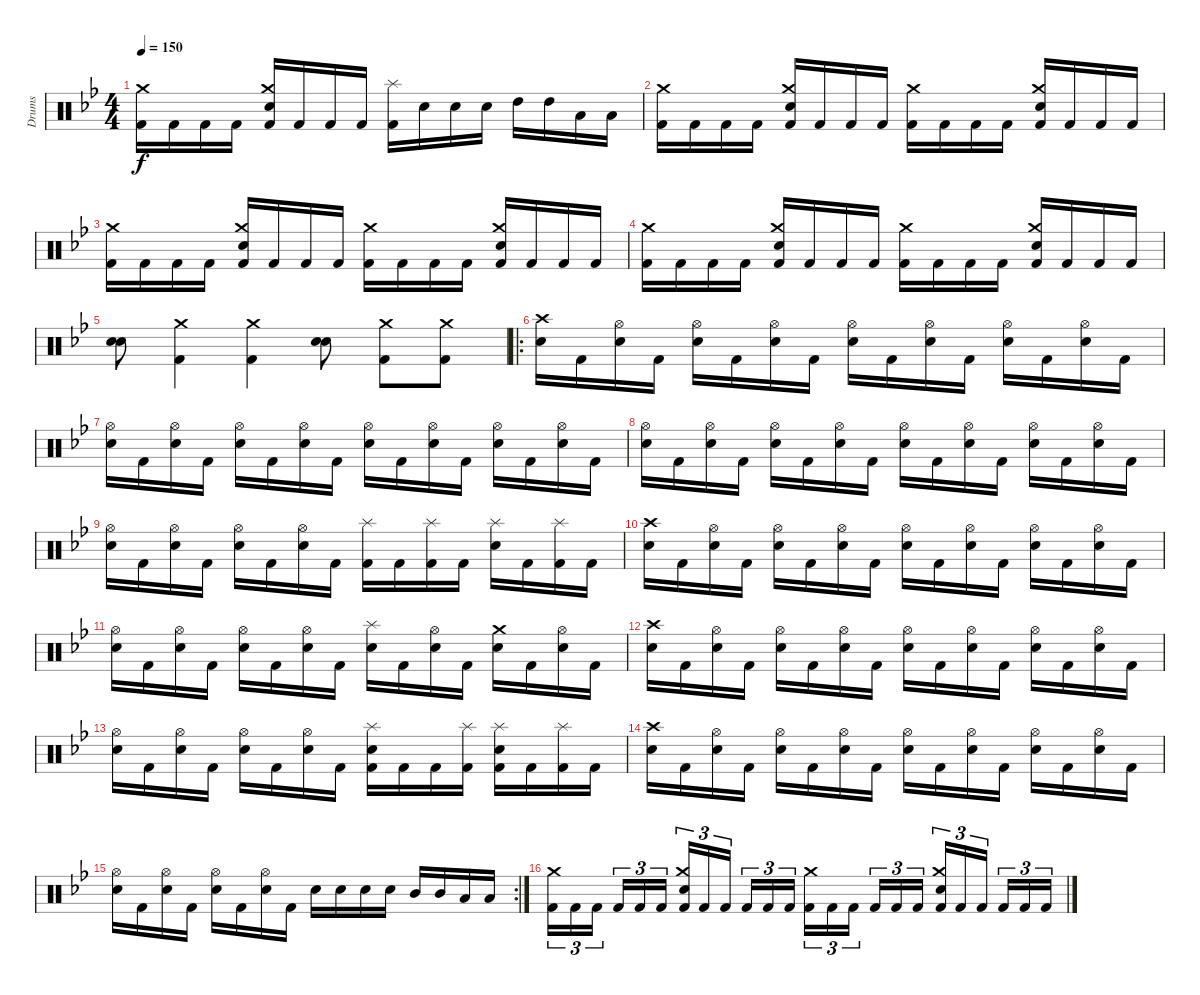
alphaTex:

\track ("Drums" "Drums") {instrument percussion}
\staff {score}
\articulation defaults
\ts (4 4)
\tempo 150
\clef neutral
\ks gminor
("Kick (hit) 2" "Crash medium (hit)").16{dy f} "Kick (hit) 2".16 "Kick (hit) 2".16 "Kick (hit) 2".16 ("Kick (hit) 2" "Snare (hit) 2" "Crash medium (hit)").16 "Kick (hit) 2".16 "Kick (hit) 2".16 "Kick (hit) 2".16 ("Kick (hit) 2" "Splash (hit)").16 "Snare (hit) 2".16 "Snare (hit) 2".16 "Snare (hit) 2".16 "High Tom (hit)".16 "High Tom (hit)".16 "Low Tom (hit)".16 "Low Tom (hit)".16 |
("Kick (hit) 2" "Crash medium (hit)").16 "Kick (hit) 2".16 "Kick (hit) 2".16 "Kick (hit) 2".16 ("Kick (hit) 2" "Snare (hit) 2" "Crash medium (hit)").16 "Kick (hit) 2".16 "Kick (hit) 2".16 "Kick (hit) 2".16 ("Kick (hit) 2" "Crash medium (hit)").16 "Kick (hit) 2".16 "Kick (hit) 2".16 "Kick (hit) 2".16 ("Kick (hit) 2" "Snare (hit) 2" "Crash medium (hit)").16 "Kick (hit) 2".16 "Kick (hit) 2".16 "Kick (hit) 2".16 |
("Kick (hit) 2" "Crash medium (hit)").16 "Kick (hit) 2".16 "Kick (hit) 2".16 "Kick (hit) 2".16 ("Kick (hit) 2" "Snare (hit) 2" "Crash medium (hit)").16 "Kick (hit) 2".16 "Kick (hit) 2".16 "Kick (hit) 2".16 ("Kick (hit) 2" "Crash medium (hit)").16 "Kick (hit) 2".16 "Kick (hit) 2".16 "Kick (hit) 2".16 ("Kick (hit) 2" "Snare (hit) 2" "Crash medium (hit)").16 "Kick (hit) 2".16 "Kick (hit) 2".16 "Kick (hit) 2".16 |
("Kick (hit) 2" "Crash medium (hit)").16 "Kick (hit) 2".16 "Kick (hit) 2".16 "Kick (hit) 2".16 ("Kick (hit) 2" "Snare (hit) 2" "Crash medium (hit)").16 "Kick (hit) 2".16 "Kick (hit) 2".16 "Kick (hit) 2".16 ("Kick (hit) 2" "Crash medium (hit)").16 "Kick (hit) 2".16 "Kick (hit) 2".16 "Kick (hit) 2".16 ("Kick (hit) 2" "Snare (hit) 2" "Crash medium (hit)").16 "Kick (hit) 2".16 "Kick (hit) 2".16 "Kick (hit) 2".16 |
("Snare (hit) 2" "Snare (hit) 2").8 ("Kick (hit) 2" "Crash medium (hit)").4 ("Kick (hit) 2" "Crash medium (hit)").4 ("Snare (hit) 2" "Snare (hit) 2").8 ("Kick (hit) 2" "Crash medium (hit)").8 ("Kick (hit) 2" "Crash medium (hit)").8 |
\ro
("Snare (hit) 2" "Crash high (hit)").16 "Kick (hit) 2".16 ("Snare (hit) 2" "Hi-Hat (open)").16 "Kick (hit) 2".16 ("Snare (hit) 2" "Hi-Hat (open)").16 "Kick (hit) 2".16 ("Snare (hit) 2" "Hi-Hat (open)").16 "Kick (hit) 2".16 ("Snare (hit) 2" "Hi-Hat (open)").16 "Kick (hit) 2".16 ("Snare (hit) 2" "Hi-Hat (open)").16 "Kick (hit) 2".16 ("Snare (hit) 2" "Hi-Hat (open)").16 "Kick (hit) 2".16 ("Snare (hit) 2" "Hi-Hat (open)").16 "Kick (hit) 2".16 |
("Snare (hit) 2" "Hi-Hat (open)").16 "Kick (hit) 2".16 ("Snare (hit) 2" "Hi-Hat (open)").16 "Kick (hit) 2".16 ("Snare (hit) 2" "Hi-Hat (open)").16 "Kick (hit) 2".16 ("Snare (hit) 2" "Hi-Hat (open)").16 "Kick (hit) 2".16 ("Snare (hit) 2" "Hi-Hat (open)").16 "Kick (hit) 2".16 ("Snare (hit) 2" "Hi-Hat (open)").16 "Kick (hit) 2".16 ("Snare (hit) 2" "Hi-Hat (open)").16 "Kick (hit) 2".16 ("Snare (hit) 2" "Hi-Hat (open)").16 "Kick (hit) 2".16 |
("Snare (hit) 2" "Hi-Hat (open)").16 "Kick (hit) 2".16 ("Snare (hit) 2" "Hi-Hat (open)").16 "Kick (hit) 2".16 ("Snare (hit) 2" "Hi-Hat (open)").16 "Kick (hit) 2".16 ("Snare (hit) 2" "Hi-Hat (open)").16 "Kick (hit) 2".16 ("Snare (hit) 2" "Hi-Hat (open)").16 "Kick (hit) 2".16 ("Snare (hit) 2" "Hi-Hat (open)").16 "Kick (hit) 2".16 ("Snare (hit) 2" "Hi-Hat (open)").16 "Kick (hit) 2".16 ("Snare (hit) 2" "Hi-Hat (open)").16 "Kick (hit) 2".16 |
("Snare (hit) 2" "Hi-Hat (open)").16 "Kick (hit) 2".16 ("Snare (hit) 2" "Hi-Hat (open)").16 "Kick (hit) 2".16 ("Snare (hit) 2" "Hi-Hat (open)").16 "Kick (hit) 2".16 ("Snare (hit) 2" "Hi-Hat (open)").16 "Kick (hit) 2".16 ("Kick (hit) 2" "Splash (hit)").16 "Kick (hit) 2".16 ("Kick (hit) 2" "Splash (hit)").16 "Kick (hit) 2".16 ("Snare (hit) 2" "Splash (hit)").16 "Kick (hit) 2".16 ("Kick (hit) 2" "Splash (hit)").16 "Kick (hit) 2".16 |
("Snare (hit) 2" "Crash high (hit)").16 "Kick (hit) 2".16 ("Snare (hit) 2" "Hi-Hat (open)").16 "Kick (hit) 2".16 ("Snare (hit) 2" "Hi-Hat (open)").16 "Kick (hit) 2".16 ("Snare (hit) 2" "Hi-Hat (open)").16 "Kick (hit) 2".16 ("Snare (hit) 2" "Hi-Hat (open)").16 "Kick (hit) 2".16 ("Snare (hit) 2" "Hi-Hat (open)").16 "Kick (hit) 2".16 ("Snare (hit) 2" "Hi-Hat (open)").16 "Kick (hit) 2".16 ("Snare (hit) 2" "Hi-Hat (open)").16 "Kick (hit) 2".16 |
("Snare (hit) 2" "Hi-Hat (open)").16 "Kick (hit) 2".16 ("Snare (hit) 2" "Hi-Hat (open)").16 "Kick (hit) 2".16 ("Snare (hit) 2" "Hi-Hat (open)").16 "Kick (hit) 2".16 ("Snare (hit) 2" "Hi-Hat (open)").16 "Kick (hit) 2".16 ("Snare (hit) 2" "Splash (hit)").16 "Kick (hit) 2".16 ("Snare (hit) 2" "Hi-Hat (open)").16 "Kick (hit) 2".16 ("Snare (hit) 2" "Crash medium (hit)").16 "Kick (hit) 2".16 ("Snare (hit) 2" "Hi-Hat (open)").16 "Kick (hit) 2".16 |
("Snare (hit) 2" "Crash high (hit)").16 "Kick (hit) 2".16 ("Snare (hit) 2" "Hi-Hat (open)").16 "Kick (hit) 2".16 ("Snare (hit) 2" "Hi-Hat (open)").16 "Kick (hit) 2".16 ("Snare (hit) 2" "Hi-Hat (open)").16 "Kick (hit) 2".16 ("Snare (hit) 2" "Hi-Hat (open)").16 "Kick (hit) 2".16 ("Snare (hit) 2" "Hi-Hat (open)").16 "Kick (hit) 2".16 ("Snare (hit) 2" "Hi-Hat (open)").16 "Kick (hit) 2".16 ("Snare (hit) 2" "Hi-Hat (open)").16 "Kick (hit) 2".16 |
("Snare (hit) 2" "Hi-Hat (open)").16 "Kick (hit) 2".16 ("Snare (hit) 2" "Hi-Hat (open)").16 "Kick (hit) 2".16 ("Snare (hit) 2" "Hi-Hat (open)").16 "Kick (hit) 2".16 ("Snare (hit) 2" "Hi-Hat (open)").16 "Kick (hit) 2".16 ("Kick (hit) 2" "Snare (hit) 2" "Splash (hit)").16 "Kick (hit) 2".16 "Kick (hit) 2".16 ("Kick (hit) 2" "Splash (hit)").16 ("Kick (hit) 2" "Snare (hit) 2" "Splash (hit)").16 "Kick (hit) 2".16 ("Kick (hit) 2" "Splash (hit)").16 "Kick (hit) 2".16 |
("Snare (hit) 2" "Crash high (hit)").16 "Kick (hit) 2".16 ("Snare (hit) 2" "Hi-Hat (open)").16 "Kick (hit) 2".16 ("Snare (hit) 2" "Hi-Hat (open)").16 "Kick (hit) 2".16 ("Snare (hit) 2" "Hi-Hat (open)").16 "Kick (hit) 2".16 ("Snare (hit) 2" "Hi-Hat (open)").16 "Kick (hit) 2".16 ("Snare (hit) 2" "Hi-Hat (open)").16 "Kick (hit) 2".16 ("Snare (hit) 2" "Hi-Hat (open)").16 "Kick (hit) 2".16 ("Snare (hit) 2" "Hi-Hat (open)").16 "Kick (hit) 2".16 |
\rc 2
("Snare (hit) 2" "Hi-Hat (open)").16 "Kick (hit) 2".16 ("Snare (hit) 2" "Hi-Hat (open)").16 "Kick (hit) 2".16 ("Snare (hit) 2" "Hi-Hat (open)").16 "Kick (hit) 2".16 ("Snare (hit) 2" "Hi-Hat (open)").16 "Kick (hit) 2".16 "Snare (hit) 2".16 "Snare (hit) 2".16 "Snare (hit) 2".16 "Snare (hit) 2".16 "Mid Tom (hit)".16 "Mid Tom (hit)".16 "Low Tom (hit)".16 "Low Tom (hit)".16 |
("Kick (hit) 2" "Crash medium (hit)").16{tu (3 2)} "Kick (hit) 2".16{tu (3 2)} "Kick (hit) 2".16{tu (3 2) beam splitsecondary} "Kick (hit) 2".16{tu (3 2)} "Kick (hit) 2".16{tu (3 2)} "Kick (hit) 2".16{tu (3 2)} ("Kick (hit) 2" "Snare (hit) 2" "Crash medium (hit)").16{tu (3 2)} "Kick (hit) 2".16{tu (3 2)} "Kick (hit) 2".16{tu (3 2) beam splitsecondary} "Kick (hit) 2".16{tu (3 2)} "Kick (hit) 2".16{tu (3 2)} "Kick (hit) 2".16{tu (3 2)} ("Kick (hit) 2" "Crash medium (hit)").16{tu (3 2)} "Kick (hit) 2".16{tu (3 2)} "Kick (hit) 2".16{tu (3 2) beam splitsecondary} "Kick (hit) 2".16{tu (3 2)} "Kick (hit) 2".16{tu (3 2)} "Kick (hit) 2".16{tu (3 2)} ("Kick (hit) 2" "Snare (hit) 2" "Crash medium (hit)").16{tu (3 2)} "Kick (hit) 2".16{tu (3 2)} "Kick (hit) 2".16{tu (3 2) beam splitsecondary} "Kick (hit) 2".16{tu (3 2)} "Kick (hit) 2".16{tu (3 2)} "Kick (hit) 2".16{tu (3 2)}
